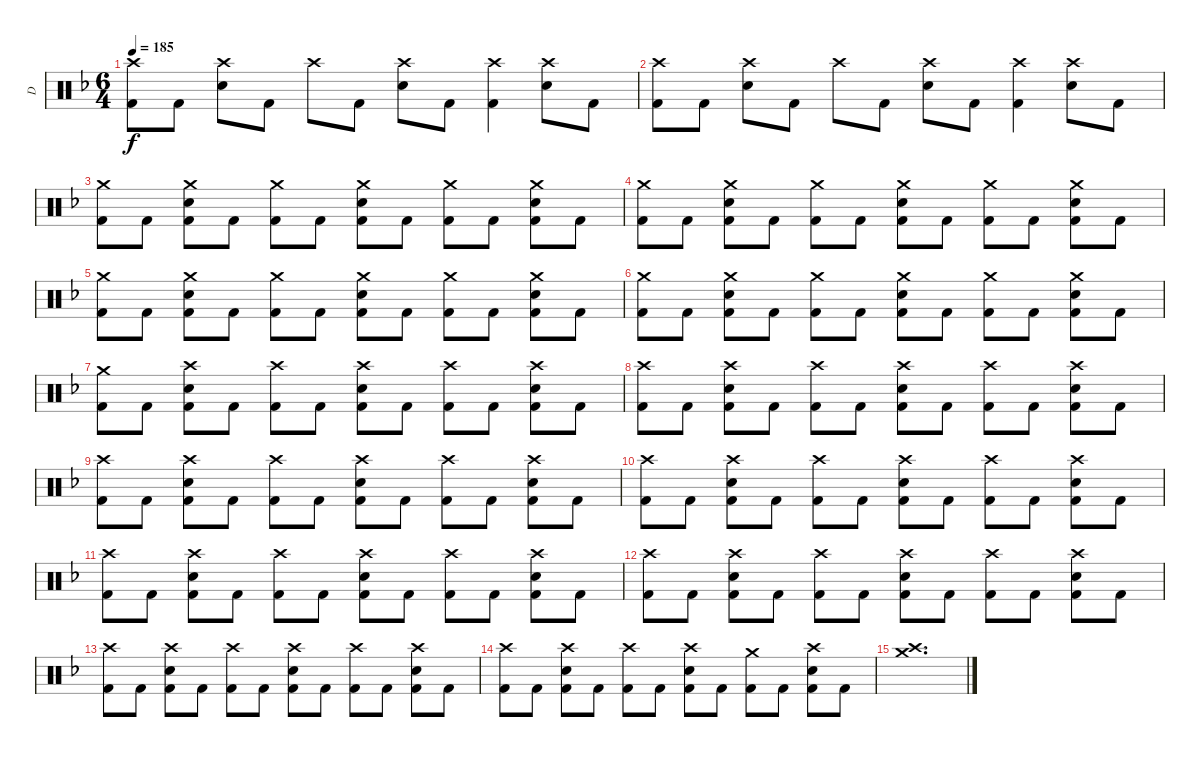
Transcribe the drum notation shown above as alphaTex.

\track ("D" "D") {instrument percussion}
\staff {score}
\articulation defaults
\ts (6 4)
\tempo 185
\clef neutral
\ks dminor
("Crash high (hit)" "Kick (hit) 2").8{dy f} "Kick (hit) 2".8 ("Crash high (hit)" "Snare (hit) 2").8 "Kick (hit) 2".8 "Crash high (hit)".8 "Kick (hit) 2".8 ("Crash high (hit)" "Snare (hit) 2").8 "Kick (hit) 2".8 ("Crash high (hit)" "Kick (hit) 2").4 ("Crash high (hit)" "Snare (hit) 2").8 "Kick (hit) 2".8 |
("Crash high (hit)" "Kick (hit) 2").8 "Kick (hit) 2".8 ("Crash high (hit)" "Snare (hit) 2").8 "Kick (hit) 2".8 "Crash high (hit)".8 "Kick (hit) 2".8 ("Crash high (hit)" "Snare (hit) 2").8 "Kick (hit) 2".8 ("Crash high (hit)" "Kick (hit) 2").4 ("Crash high (hit)" "Snare (hit) 2").8 "Kick (hit) 2".8 |
("Crash medium (hit)" "Kick (hit) 2").8 "Kick (hit) 2".8 ("Crash medium (hit)" "Snare (hit) 2" "Kick (hit) 2").8 "Kick (hit) 2".8 ("Crash medium (hit)" "Kick (hit) 2").8 "Kick (hit) 2".8 ("Crash medium (hit)" "Snare (hit) 2" "Kick (hit) 2").8 "Kick (hit) 2".8 ("Crash medium (hit)" "Kick (hit) 2").8 "Kick (hit) 2".8 ("Crash medium (hit)" "Snare (hit) 2" "Kick (hit) 2").8 "Kick (hit) 2".8 |
("Crash medium (hit)" "Kick (hit) 2").8 "Kick (hit) 2".8 ("Crash medium (hit)" "Snare (hit) 2" "Kick (hit) 2").8 "Kick (hit) 2".8 ("Crash medium (hit)" "Kick (hit) 2").8 "Kick (hit) 2".8 ("Crash medium (hit)" "Snare (hit) 2" "Kick (hit) 2").8 "Kick (hit) 2".8 ("Crash medium (hit)" "Kick (hit) 2").8 "Kick (hit) 2".8 ("Crash medium (hit)" "Snare (hit) 2" "Kick (hit) 2").8 "Kick (hit) 2".8 |
("Crash medium (hit)" "Kick (hit) 2").8 "Kick (hit) 2".8 ("Crash medium (hit)" "Snare (hit) 2" "Kick (hit) 2").8 "Kick (hit) 2".8 ("Crash medium (hit)" "Kick (hit) 2").8 "Kick (hit) 2".8 ("Crash medium (hit)" "Snare (hit) 2" "Kick (hit) 2").8 "Kick (hit) 2".8 ("Crash medium (hit)" "Kick (hit) 2").8 "Kick (hit) 2".8 ("Crash medium (hit)" "Snare (hit) 2" "Kick (hit) 2").8 "Kick (hit) 2".8 |
("Crash medium (hit)" "Kick (hit) 2").8 "Kick (hit) 2".8 ("Crash medium (hit)" "Snare (hit) 2" "Kick (hit) 2").8 "Kick (hit) 2".8 ("Crash medium (hit)" "Kick (hit) 2").8 "Kick (hit) 2".8 ("Crash medium (hit)" "Snare (hit) 2" "Kick (hit) 2").8 "Kick (hit) 2".8 ("Crash medium (hit)" "Kick (hit) 2").8 "Kick (hit) 2".8 ("Crash medium (hit)" "Snare (hit) 2" "Kick (hit) 2").8 "Kick (hit) 2".8 |
("Crash medium (hit)" "Kick (hit) 2").8 "Kick (hit) 2".8 ("Crash high (hit)" "Snare (hit) 2" "Kick (hit) 2").8 "Kick (hit) 2".8 ("Crash high (hit)" "Kick (hit) 2").8 "Kick (hit) 2".8 ("Crash high (hit)" "Snare (hit) 2" "Kick (hit) 2").8 "Kick (hit) 2".8 ("Crash high (hit)" "Kick (hit) 2").8 "Kick (hit) 2".8 ("Crash high (hit)" "Snare (hit) 2" "Kick (hit) 2").8 "Kick (hit) 2".8 |
("Crash high (hit)" "Kick (hit) 2").8 "Kick (hit) 2".8 ("Crash high (hit)" "Snare (hit) 2" "Kick (hit) 2").8 "Kick (hit) 2".8 ("Crash high (hit)" "Kick (hit) 2").8 "Kick (hit) 2".8 ("Crash high (hit)" "Snare (hit) 2" "Kick (hit) 2").8 "Kick (hit) 2".8 ("Crash high (hit)" "Kick (hit) 2").8 "Kick (hit) 2".8 ("Crash high (hit)" "Snare (hit) 2" "Kick (hit) 2").8 "Kick (hit) 2".8 |
("Crash high (hit)" "Kick (hit) 2").8 "Kick (hit) 2".8 ("Crash high (hit)" "Snare (hit) 2" "Kick (hit) 2").8 "Kick (hit) 2".8 ("Crash high (hit)" "Kick (hit) 2").8 "Kick (hit) 2".8 ("Crash high (hit)" "Snare (hit) 2" "Kick (hit) 2").8 "Kick (hit) 2".8 ("Crash high (hit)" "Kick (hit) 2").8 "Kick (hit) 2".8 ("Crash high (hit)" "Snare (hit) 2" "Kick (hit) 2").8 "Kick (hit) 2".8 |
("Crash high (hit)" "Kick (hit) 2").8 "Kick (hit) 2".8 ("Crash high (hit)" "Snare (hit) 2" "Kick (hit) 2").8 "Kick (hit) 2".8 ("Crash high (hit)" "Kick (hit) 2").8 "Kick (hit) 2".8 ("Crash high (hit)" "Snare (hit) 2" "Kick (hit) 2").8 "Kick (hit) 2".8 ("Crash high (hit)" "Kick (hit) 2").8 "Kick (hit) 2".8 ("Crash high (hit)" "Snare (hit) 2" "Kick (hit) 2").8 "Kick (hit) 2".8 |
("Crash high (hit)" "Kick (hit) 2").8 "Kick (hit) 2".8 ("Crash high (hit)" "Snare (hit) 2" "Kick (hit) 2").8 "Kick (hit) 2".8 ("Crash high (hit)" "Kick (hit) 2").8 "Kick (hit) 2".8 ("Crash high (hit)" "Snare (hit) 2" "Kick (hit) 2").8 "Kick (hit) 2".8 ("Crash high (hit)" "Kick (hit) 2").8 "Kick (hit) 2".8 ("Crash high (hit)" "Snare (hit) 2" "Kick (hit) 2").8 "Kick (hit) 2".8 |
("Crash high (hit)" "Kick (hit) 2").8 "Kick (hit) 2".8 ("Crash high (hit)" "Snare (hit) 2" "Kick (hit) 2").8 "Kick (hit) 2".8 ("Crash high (hit)" "Kick (hit) 2").8 "Kick (hit) 2".8 ("Crash high (hit)" "Snare (hit) 2" "Kick (hit) 2").8 "Kick (hit) 2".8 ("Crash high (hit)" "Kick (hit) 2").8 "Kick (hit) 2".8 ("Crash high (hit)" "Snare (hit) 2" "Kick (hit) 2").8 "Kick (hit) 2".8 |
("Crash high (hit)" "Kick (hit) 2").8 "Kick (hit) 2".8 ("Crash high (hit)" "Snare (hit) 2" "Kick (hit) 2").8 "Kick (hit) 2".8 ("Crash high (hit)" "Kick (hit) 2").8 "Kick (hit) 2".8 ("Crash high (hit)" "Snare (hit) 2" "Kick (hit) 2").8 "Kick (hit) 2".8 ("Crash high (hit)" "Kick (hit) 2").8 "Kick (hit) 2".8 ("Crash high (hit)" "Snare (hit) 2" "Kick (hit) 2").8 "Kick (hit) 2".8 |
("Crash high (hit)" "Kick (hit) 2").8 "Kick (hit) 2".8 ("Crash high (hit)" "Snare (hit) 2" "Kick (hit) 2").8 "Kick (hit) 2".8 ("Crash high (hit)" "Kick (hit) 2").8 "Kick (hit) 2".8 ("Crash high (hit)" "Snare (hit) 2" "Kick (hit) 2").8 "Kick (hit) 2".8 ("Crash medium (hit)" "Kick (hit) 2").8 "Kick (hit) 2".8 ("Crash high (hit)" "Snare (hit) 2" "Kick (hit) 2").8 "Kick (hit) 2".8 |
("Crash medium (hit)" "Crash high (hit)").1{d}
